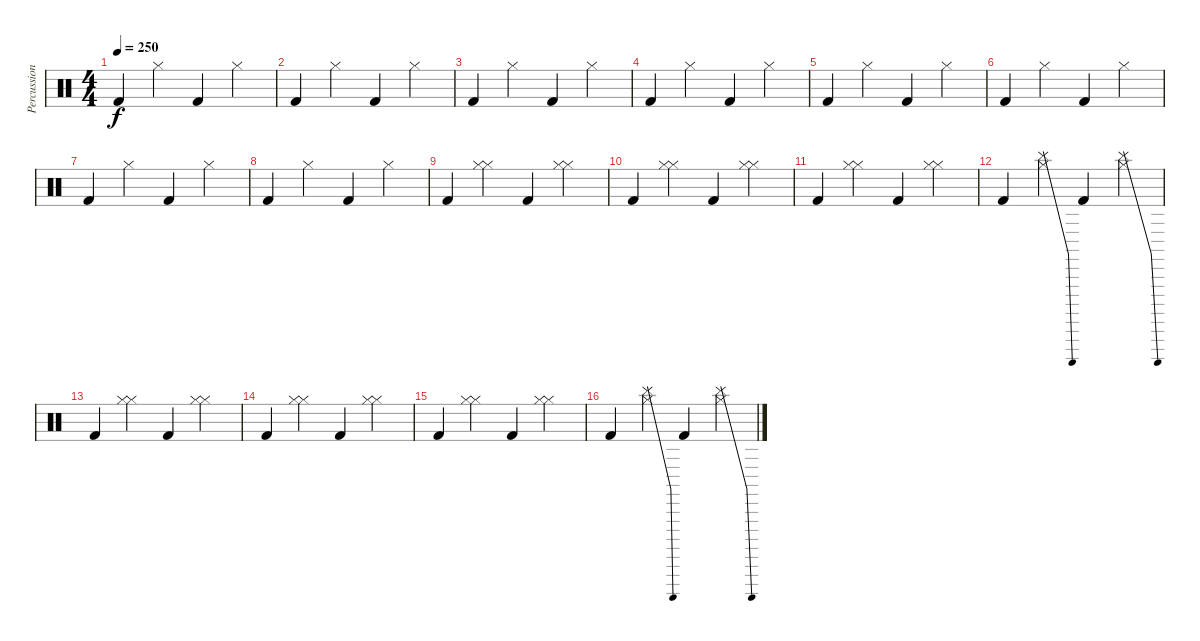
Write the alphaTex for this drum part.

\track ("Percussion" "Percussion") {instrument percussion}
\staff {score}
\articulation defaults
\ts (4 4)
\tempo 250
\clef neutral
\ks c "Kick (hit) 2".4{dy f} "Hi-Hat (closed)".4 "Kick (hit) 2".4 "Hi-Hat (closed)".4
|
"Kick (hit) 2".4 "Hi-Hat (closed)".4 "Kick (hit) 2".4 "Hi-Hat (closed)".4 |
"Kick (hit) 2".4 "Hi-Hat (closed)".4 "Kick (hit) 2".4 "Hi-Hat (closed)".4 |
"Kick (hit) 2".4 "Hi-Hat (closed)".4 "Kick (hit) 2".4 "Hi-Hat (closed)".4 |
"Kick (hit) 2".4 "Hi-Hat (closed)".4 "Kick (hit) 2".4 "Hi-Hat (closed)".4 |
"Kick (hit) 2".4 "Hi-Hat (closed)".4 "Kick (hit) 2".4 "Hi-Hat (closed)".4 |
"Kick (hit) 2".4 "Hi-Hat (closed)".4 "Kick (hit) 2".4 "Hi-Hat (closed)".4 |
"Kick (hit) 2".4 "Hi-Hat (closed)".4 "Kick (hit) 2".4 "Hi-Hat (closed)".4 |
"Kick (hit) 2".4 ("Hi-Hat (closed)" "Hi-Hat (closed)").4 "Kick (hit) 2".4 ("Hi-Hat (closed)" "Hi-Hat (closed)").4 |
"Kick (hit) 2".4 ("Hi-Hat (closed)" "Hi-Hat (closed)").4 "Kick (hit) 2".4 ("Hi-Hat (closed)" "Hi-Hat (closed)").4 |
"Kick (hit) 2".4 ("Hi-Hat (closed)" "Hi-Hat (closed)").4 "Kick (hit) 2".4 ("Hi-Hat (closed)" "Hi-Hat (closed)").4 |
"Kick (hit) 2".4 ("Hi-Hat (closed)" "Cymbal (hit)"{be (bend 0 0 60 4)}).4 "Kick (hit) 2".4 ("Hi-Hat (closed)" "Cymbal (hit)"{be (bend 0 0 60 4)}).4 |
"Kick (hit) 2".4 ("Hi-Hat (closed)" "Hi-Hat (closed)").4 "Kick (hit) 2".4 ("Hi-Hat (closed)" "Hi-Hat (closed)").4 |
"Kick (hit) 2".4 ("Hi-Hat (closed)" "Hi-Hat (closed)").4 "Kick (hit) 2".4 ("Hi-Hat (closed)" "Hi-Hat (closed)").4 |
"Kick (hit) 2".4 ("Hi-Hat (closed)" "Hi-Hat (closed)").4 "Kick (hit) 2".4 ("Hi-Hat (closed)" "Hi-Hat (closed)").4 |
"Kick (hit) 2".4 ("Hi-Hat (closed)" "Cymbal (hit)"{be (bend 0 0 60 4)}).4 "Kick (hit) 2".4 ("Hi-Hat (closed)" "Cymbal (hit)"{be (bend 0 0 60 4)}).4
